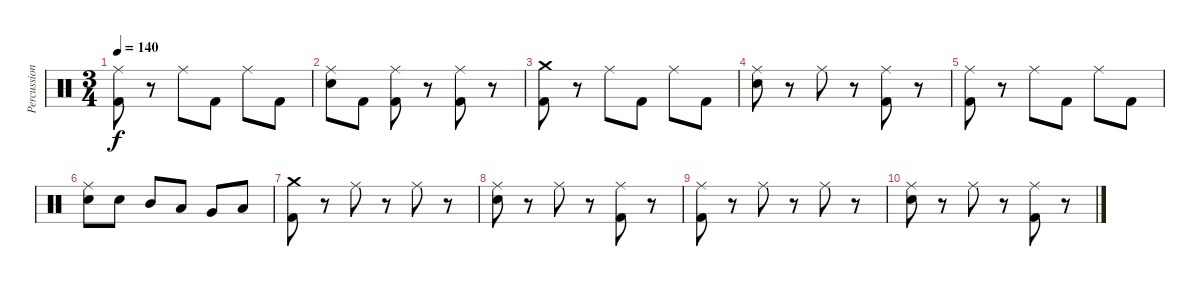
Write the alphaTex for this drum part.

\track ("Percussion" "Percussion") {instrument percussion}
\staff {score}
\articulation defaults
\ts (3 4)
\tempo 140
\clef neutral
\ks c
("Ride (middle)" "Kick (hit) 2").8{dy f} r.8 "Ride (middle)".8 "Kick (hit) 2".8 "Ride (middle)".8 "Kick (hit) 2".8 |
("Ride (middle)" "Electric Snare (hit)").8 "Kick (hit) 2".8 ("Ride (middle)" "Kick (hit) 2").8 r.8 ("Ride (middle)" "Kick (hit) 2").8 r.8 |
("Crash medium (hit)" "Kick (hit) 2").8 r.8 "Ride (middle)".8 "Kick (hit) 2".8 "Ride (middle)".8 "Kick (hit) 2".8 |
("Ride (middle)" "Electric Snare (hit)").8 r.8 "Ride (middle)".8 r.8 ("Ride (middle)" "Kick (hit) 2").8 r.8 |
("Ride (middle)" "Kick (hit) 2").8 r.8 "Ride (middle)".8 "Kick (hit) 2".8 "Ride (middle)".8 "Kick (hit) 2".8 |
("Ride (middle)" "Electric Snare (hit)").8 "Electric Snare (hit)".8 "Mid Tom (hit)".8 "Low Tom (hit)".8 "Very Low Tom (hit)".8 "Low Floor Tom (hit)".8 |
("Crash medium (hit)" "Kick (hit) 2").8 r.8 "Ride (middle)".8 r.8 "Ride (middle)".8 r.8 |
("Ride (middle)" "Electric Snare (hit)").8 r.8 "Ride (middle)".8 r.8 ("Ride (middle)" "Kick (hit) 2").8 r.8 |
("Ride (middle)" "Kick (hit) 2").8 r.8 "Ride (middle)".8 r.8 "Ride (middle)".8 r.8 |
("Ride (middle)" "Electric Snare (hit)").8 r.8 "Ride (middle)".8 r.8 ("Ride (middle)" "Kick (hit) 2").8 r.8
